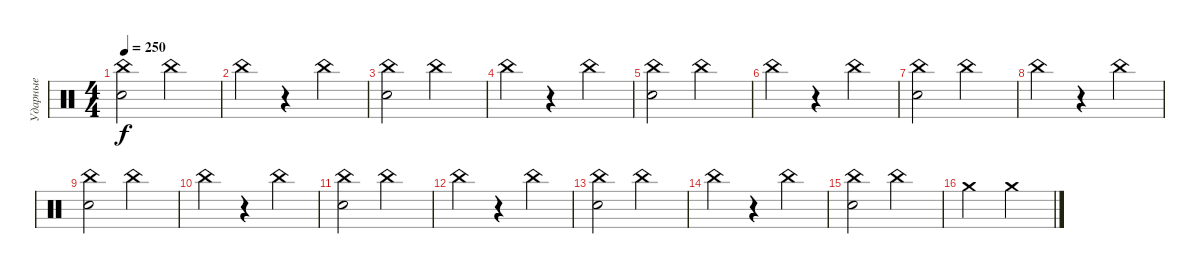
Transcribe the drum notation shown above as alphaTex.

\track ("Ударные" "Ударные") {instrument percussion}
\staff {score}
\articulation defaults
\ts (4 4)
\tempo 250
\clef neutral
\ks c
("China (hit)" "Snare (hit) 2").2{dy f} "China (hit)".2 |
"China (hit)".4 r.4 "China (hit)".4 |
("China (hit)" "Snare (hit) 2").2 "China (hit)".2 |
"China (hit)".4 r.4 "China (hit)".4 |
("China (hit)" "Snare (hit) 2").2 "China (hit)".2 |
"China (hit)".4 r.4 "China (hit)".4 |
("China (hit)" "Snare (hit) 2").2 "China (hit)".2 |
"China (hit)".4 r.4 "China (hit)".4 |
("China (hit)" "Snare (hit) 2").2 "China (hit)".2 |
"China (hit)".4 r.4 "China (hit)".4 |
("China (hit)" "Snare (hit) 2").2 "China (hit)".2 |
"China (hit)".4 r.4 "China (hit)".4 |
("China (hit)" "Snare (hit) 2").2 "China (hit)".2 |
"China (hit)".4 r.4 "China (hit)".4 |
("China (hit)" "Snare (hit) 2").2 "China (hit)".2 |
"Crash medium (hit)".2 "Crash medium (hit)".2
